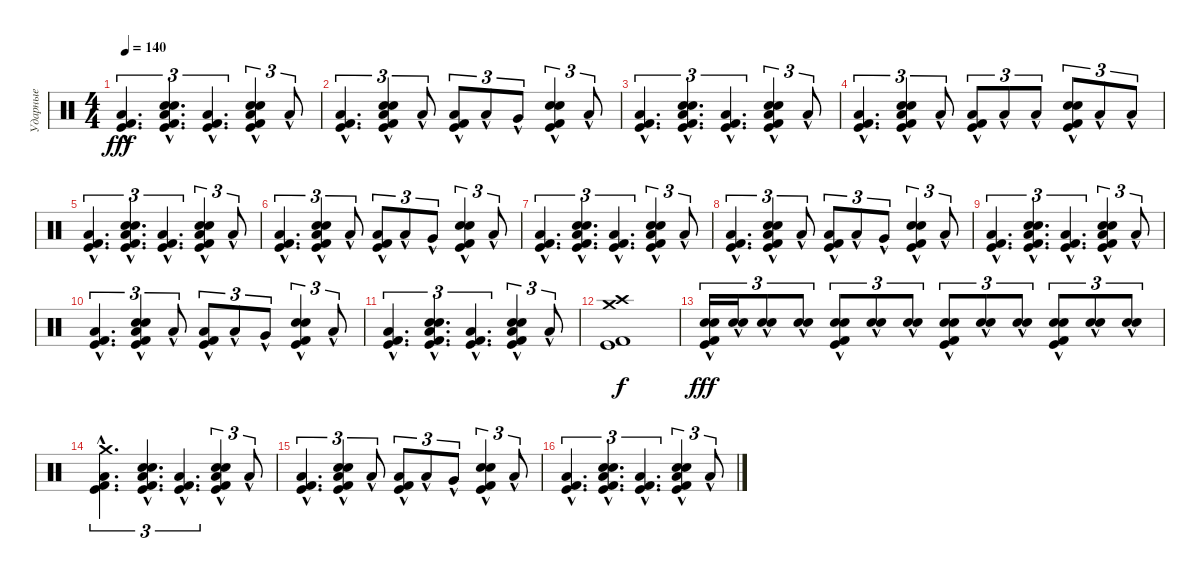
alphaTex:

\track ("Ударные" "Ударные") {instrument percussion}
\staff {score}
\articulation defaults
\ts (4 4)
\tempo 140
\clef neutral
\ks c
("Kick (hit)" "Kick (hit) 2" "Low Floor Tom (hit)"{hac}).4{d tu (3 2) dy fff} ("Kick (hit)" "Kick (hit) 2" "Snare (hit) 2"{hac} "Electric Snare (hit)"{hac} "Low Floor Tom (hit)"{hac}).4{d tu (3 2)} ("Kick (hit)" "Kick (hit) 2" "Low Floor Tom (hit)"{hac}).4{d tu (3 2)} ("Kick (hit)" "Kick (hit) 2" "Snare (hit) 2"{hac} "Electric Snare (hit)"{hac} "Low Floor Tom (hit)"{hac}).4{tu (3 2)} "Low Floor Tom (hit)"{hac}.8{tu (3 2)} |
("Kick (hit)" "Kick (hit) 2" "Low Floor Tom (hit)"{hac}).4{d tu (3 2)} ("Kick (hit)" "Kick (hit) 2" "Snare (hit) 2"{hac} "Electric Snare (hit)"{hac} "Low Floor Tom (hit)"{hac}).4{tu (3 2)} "Low Floor Tom (hit)"{hac}.8{tu (3 2)} ("Kick (hit)" "Kick (hit) 2" "Low Floor Tom (hit)"{hac}).8{tu (3 2)} "Low Tom (hit)"{hac}.8{tu (3 2)} "Very Low Tom (hit)"{hac}.8{tu (3 2)} ("Kick (hit)" "Kick (hit) 2" "Snare (hit) 2"{hac} "Electric Snare (hit)"{hac}).4{tu (3 2)} "Low Floor Tom (hit)"{hac}.8{tu (3 2)} |
("Kick (hit)" "Kick (hit) 2" "Low Floor Tom (hit)"{hac}).4{d tu (3 2)} ("Kick (hit)" "Kick (hit) 2" "Snare (hit) 2"{hac} "Electric Snare (hit)"{hac} "Low Floor Tom (hit)"{hac}).4{d tu (3 2)} ("Kick (hit)" "Kick (hit) 2" "Low Floor Tom (hit)"{hac}).4{d tu (3 2)} ("Kick (hit)" "Kick (hit) 2" "Snare (hit) 2"{hac} "Electric Snare (hit)"{hac} "Low Floor Tom (hit)"{hac}).4{tu (3 2)} "Low Floor Tom (hit)"{hac}.8{tu (3 2)} |
("Kick (hit)" "Kick (hit) 2" "Low Floor Tom (hit)"{hac}).4{d tu (3 2)} ("Kick (hit)" "Kick (hit) 2" "Snare (hit) 2"{hac} "Electric Snare (hit)"{hac} "Low Floor Tom (hit)"{hac}).4{tu (3 2)} "Low Floor Tom (hit)"{hac}.8{tu (3 2)} ("Kick (hit)" "Kick (hit) 2" "Low Floor Tom (hit)"{hac}).8{tu (3 2)} "Low Floor Tom (hit)"{hac}.8{tu (3 2)} "Low Floor Tom (hit)"{hac}.8{tu (3 2)} ("Kick (hit)" "Kick (hit) 2" "Snare (hit) 2"{hac} "Electric Snare (hit)"{hac}).8{tu (3 2)} "Low Floor Tom (hit)"{hac}.8{tu (3 2)} "Low Floor Tom (hit)"{hac}.8{tu (3 2)} |
("Kick (hit)" "Kick (hit) 2" "Low Floor Tom (hit)"{hac}).4{d tu (3 2)} ("Kick (hit)" "Kick (hit) 2" "Snare (hit) 2"{hac} "Electric Snare (hit)"{hac} "Low Floor Tom (hit)"{hac}).4{d tu (3 2)} ("Kick (hit)" "Kick (hit) 2" "Low Floor Tom (hit)"{hac}).4{d tu (3 2)} ("Kick (hit)" "Kick (hit) 2" "Snare (hit) 2"{hac} "Electric Snare (hit)"{hac} "Low Floor Tom (hit)"{hac}).4{tu (3 2)} "Low Floor Tom (hit)"{hac}.8{tu (3 2)} |
("Kick (hit)" "Kick (hit) 2" "Low Floor Tom (hit)"{hac}).4{d tu (3 2)} ("Kick (hit)" "Kick (hit) 2" "Snare (hit) 2"{hac} "Electric Snare (hit)"{hac} "Low Floor Tom (hit)"{hac}).4{tu (3 2)} "Low Floor Tom (hit)"{hac}.8{tu (3 2)} ("Kick (hit)" "Kick (hit) 2" "Low Floor Tom (hit)"{hac}).8{tu (3 2)} "Low Tom (hit)"{hac}.8{tu (3 2)} "Very Low Tom (hit)"{hac}.8{tu (3 2)} ("Kick (hit)" "Kick (hit) 2" "Snare (hit) 2"{hac} "Electric Snare (hit)"{hac}).4{tu (3 2)} "Low Floor Tom (hit)"{hac}.8{tu (3 2)} |
("Kick (hit)" "Kick (hit) 2" "Low Floor Tom (hit)"{hac}).4{d tu (3 2)} ("Kick (hit)" "Kick (hit) 2" "Snare (hit) 2"{hac} "Electric Snare (hit)"{hac} "Low Floor Tom (hit)"{hac}).4{d tu (3 2)} ("Kick (hit)" "Kick (hit) 2" "Low Floor Tom (hit)"{hac}).4{d tu (3 2)} ("Kick (hit)" "Kick (hit) 2" "Snare (hit) 2"{hac} "Electric Snare (hit)"{hac} "Low Floor Tom (hit)"{hac}).4{tu (3 2)} "Low Floor Tom (hit)"{hac}.8{tu (3 2)} |
("Kick (hit)" "Kick (hit) 2" "Low Floor Tom (hit)"{hac}).4{d tu (3 2)} ("Kick (hit)" "Kick (hit) 2" "Snare (hit) 2"{hac} "Electric Snare (hit)"{hac} "Low Floor Tom (hit)"{hac}).4{tu (3 2)} "Low Floor Tom (hit)"{hac}.8{tu (3 2)} ("Kick (hit)" "Kick (hit) 2" "Low Floor Tom (hit)"{hac}).8{tu (3 2)} "Low Tom (hit)"{hac}.8{tu (3 2)} "Very Low Tom (hit)"{hac}.8{tu (3 2)} ("Kick (hit)" "Kick (hit) 2" "Snare (hit) 2"{hac} "Electric Snare (hit)"{hac}).4{tu (3 2)} "Low Floor Tom (hit)"{hac}.8{tu (3 2)} |
("Kick (hit)" "Kick (hit) 2" "Low Floor Tom (hit)"{hac}).4{d tu (3 2)} ("Kick (hit)" "Kick (hit) 2" "Snare (hit) 2"{hac} "Electric Snare (hit)"{hac} "Low Floor Tom (hit)"{hac}).4{d tu (3 2)} ("Kick (hit)" "Kick (hit) 2" "Low Floor Tom (hit)"{hac}).4{d tu (3 2)} ("Kick (hit)" "Kick (hit) 2" "Snare (hit) 2"{hac} "Electric Snare (hit)"{hac} "Low Floor Tom (hit)"{hac}).4{tu (3 2)} "Low Floor Tom (hit)"{hac}.8{tu (3 2)} |
("Kick (hit)" "Kick (hit) 2" "Low Floor Tom (hit)"{hac}).4{d tu (3 2)} ("Kick (hit)" "Kick (hit) 2" "Snare (hit) 2"{hac} "Electric Snare (hit)"{hac} "Low Floor Tom (hit)"{hac}).4{tu (3 2)} "Low Floor Tom (hit)"{hac}.8{tu (3 2)} ("Kick (hit)" "Kick (hit) 2" "Low Floor Tom (hit)"{hac}).8{tu (3 2)} "Low Tom (hit)"{hac}.8{tu (3 2)} "Very Low Tom (hit)"{hac}.8{tu (3 2)} ("Kick (hit)" "Kick (hit) 2" "Snare (hit) 2"{hac} "Electric Snare (hit)"{hac}).4{tu (3 2)} "Low Floor Tom (hit)"{hac}.8{tu (3 2)} |
("Kick (hit)" "Kick (hit) 2" "Low Floor Tom (hit)"{hac}).4{d tu (3 2)} ("Kick (hit)" "Kick (hit) 2" "Snare (hit) 2"{hac} "Electric Snare (hit)"{hac} "Low Floor Tom (hit)"{hac}).4{d tu (3 2)} ("Kick (hit)" "Kick (hit) 2" "Low Floor Tom (hit)"{hac}).4{d tu (3 2)} ("Kick (hit)" "Kick (hit) 2" "Snare (hit) 2"{hac} "Electric Snare (hit)"{hac} "Low Floor Tom (hit)"{hac}).4{tu (3 2)} "Low Floor Tom (hit)"{hac}.8{tu (3 2)} |
("Crash high (hit)" "Kick (hit)" "Kick (hit) 2" "Crash medium (hit)").1{dy f} |
("Kick (hit)" "Kick (hit) 2" "Snare (hit) 2"{hac} "Electric Snare (hit)"{hac}).16{tu (3 2) dy fff} ("Snare (hit) 2"{hac} "Electric Snare (hit)"{hac}).16{tu (3 2)} ("Snare (hit) 2"{hac} "Electric Snare (hit)"{hac}).8{tu (3 2)} ("Snare (hit) 2"{hac} "Electric Snare (hit)"{hac}).8{tu (3 2)} ("Kick (hit)" "Kick (hit) 2" "Snare (hit) 2"{hac} "Electric Snare (hit)"{hac}).8{tu (3 2)} ("Snare (hit) 2"{hac} "Electric Snare (hit)"{hac}).8{tu (3 2)} ("Snare (hit) 2"{hac} "Electric Snare (hit)"{hac}).8{tu (3 2)} ("Kick (hit)" "Kick (hit) 2" "Snare (hit) 2"{hac} "Electric Snare (hit)"{hac}).8{tu (3 2)} ("Snare (hit) 2"{hac} "Electric Snare (hit)"{hac}).8{tu (3 2)} ("Snare (hit) 2"{hac} "Electric Snare (hit)"{hac}).8{tu (3 2)} ("Kick (hit)" "Kick (hit) 2" "Snare (hit) 2"{hac} "Electric Snare (hit)"{hac}).8{tu (3 2)} ("Snare (hit) 2"{hac} "Electric Snare (hit)"{hac}).8{tu (3 2)} ("Snare (hit) 2"{hac} "Electric Snare (hit)"{hac}).8{tu (3 2)} |
("Crash medium (hit)" "Kick (hit)" "Kick (hit) 2" "Low Floor Tom (hit)"{hac}).4{d tu (3 2)} ("Kick (hit)" "Kick (hit) 2" "Snare (hit) 2"{hac} "Electric Snare (hit)"{hac} "Low Floor Tom (hit)"{hac}).4{d tu (3 2)} ("Kick (hit)" "Kick (hit) 2" "Low Floor Tom (hit)"{hac}).4{d tu (3 2)} ("Kick (hit)" "Kick (hit) 2" "Snare (hit) 2"{hac} "Electric Snare (hit)"{hac} "Low Floor Tom (hit)"{hac}).4{tu (3 2)} "Low Floor Tom (hit)"{hac}.8{tu (3 2)} |
("Kick (hit)" "Kick (hit) 2" "Low Floor Tom (hit)"{hac}).4{d tu (3 2)} ("Kick (hit)" "Kick (hit) 2" "Snare (hit) 2"{hac} "Electric Snare (hit)"{hac} "Low Floor Tom (hit)"{hac}).4{tu (3 2)} "Low Floor Tom (hit)"{hac}.8{tu (3 2)} ("Kick (hit)" "Kick (hit) 2" "Low Floor Tom (hit)"{hac}).8{tu (3 2)} "Low Tom (hit)"{hac}.8{tu (3 2)} "Very Low Tom (hit)"{hac}.8{tu (3 2)} ("Kick (hit)" "Kick (hit) 2" "Snare (hit) 2"{hac} "Electric Snare (hit)"{hac}).4{tu (3 2)} "Low Floor Tom (hit)"{hac}.8{tu (3 2)} |
("Kick (hit)" "Kick (hit) 2" "Low Floor Tom (hit)"{hac}).4{d tu (3 2)} ("Kick (hit)" "Kick (hit) 2" "Snare (hit) 2"{hac} "Electric Snare (hit)"{hac} "Low Floor Tom (hit)"{hac}).4{d tu (3 2)} ("Kick (hit)" "Kick (hit) 2" "Low Floor Tom (hit)"{hac}).4{d tu (3 2)} ("Kick (hit)" "Kick (hit) 2" "Snare (hit) 2"{hac} "Electric Snare (hit)"{hac} "Low Floor Tom (hit)"{hac}).4{tu (3 2)} "Low Floor Tom (hit)"{hac}.8{tu (3 2)}
